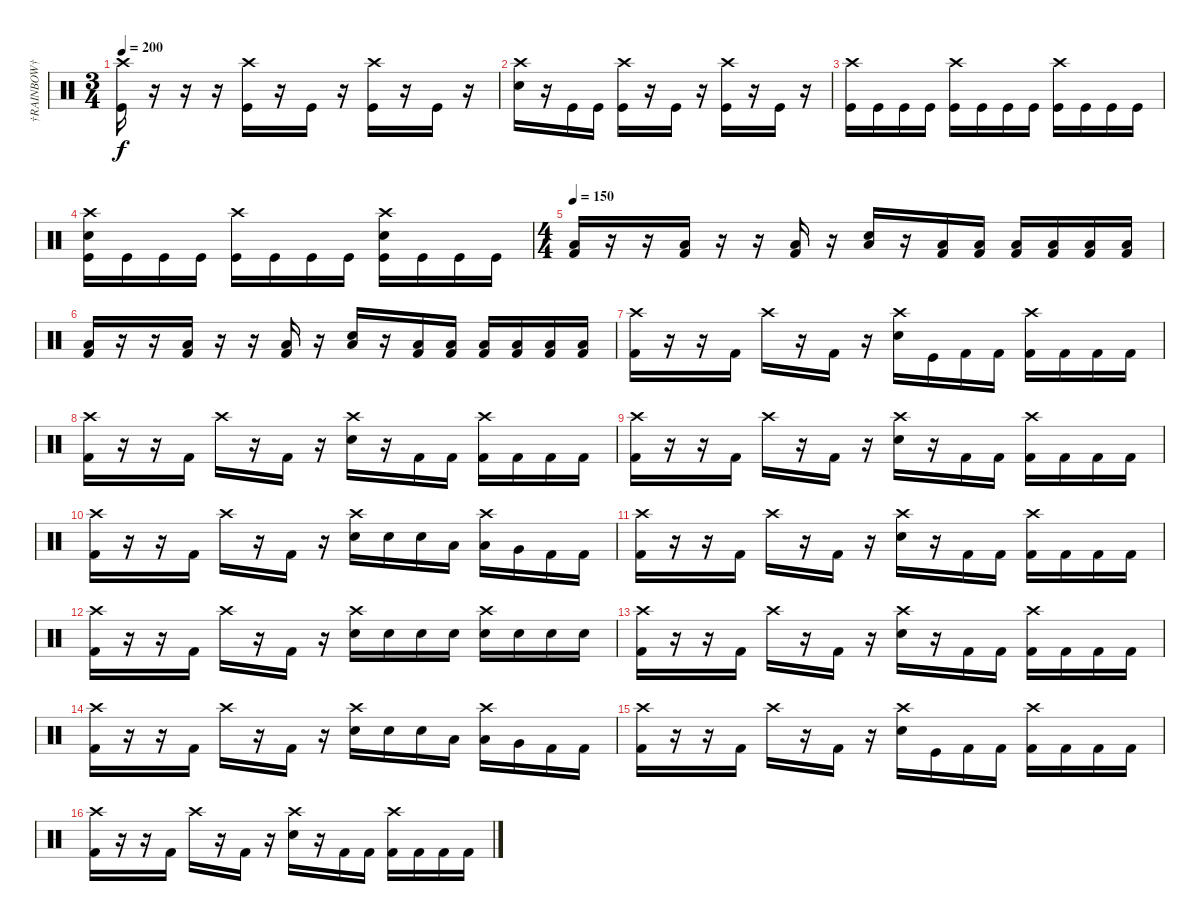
\track ("†RAINBOW†" "†RAINBOW†") {instrument percussion}
\staff {score}
\articulation defaults
\ts (3 4)
\tempo 200
\clef neutral
\ks c
("Crash high (hit)" "Kick (hit)").16{dy f} r.16 r.16 r.16 ("Crash high (hit)" "Kick (hit)").16 r.16 "Kick (hit)".16 r.16 ("Crash high (hit)" "Kick (hit)").16 r.16 "Kick (hit)".16 r.16 |
("Crash high (hit)" "Electric Snare (hit)").16 r.16 "Kick (hit)".16 "Kick (hit)".16 ("Crash high (hit)" "Kick (hit)").16 r.16 "Kick (hit)".16 r.16 ("Crash high (hit)" "Kick (hit)").16 r.16 "Kick (hit)".16 r.16 |
("Crash high (hit)" "Kick (hit)").16 "Kick (hit)".16 "Kick (hit)".16 "Kick (hit)".16 ("Crash high (hit)" "Kick (hit)").16 "Kick (hit)".16 "Kick (hit)".16 "Kick (hit)".16 ("Crash high (hit)" "Kick (hit)").16 "Kick (hit)".16 "Kick (hit)".16 "Kick (hit)".16 |
("Crash high (hit)" "Electric Snare (hit)" "Kick (hit)").16 "Kick (hit)".16 "Kick (hit)".16 "Kick (hit)".16 ("Crash high (hit)" "Kick (hit)").16 "Kick (hit)".16 "Kick (hit)".16 "Kick (hit)".16 ("Crash high (hit)" "Electric Snare (hit)" "Kick (hit)").16 "Kick (hit)".16 "Kick (hit)".16 "Kick (hit)".16 |
\ts (4 4)
\tempo 150
("Low Floor Tom (hit)" "Kick (hit) 2").16 r.16 r.16 ("Low Floor Tom (hit)" "Kick (hit) 2").16 r.16 r.16 ("Low Floor Tom (hit)" "Kick (hit) 2").16 r.16 ("Low Floor Tom (hit)" "Electric Snare (hit)").16 r.16 ("Low Floor Tom (hit)" "Kick (hit) 2").16 ("Low Floor Tom (hit)" "Kick (hit) 2").16 ("Low Floor Tom (hit)" "Kick (hit) 2").16 ("Low Floor Tom (hit)" "Kick (hit) 2").16 ("Low Floor Tom (hit)" "Kick (hit) 2").16 ("Low Floor Tom (hit)" "Kick (hit) 2").16 |
("Low Floor Tom (hit)" "Kick (hit) 2").16 r.16 r.16 ("Low Floor Tom (hit)" "Kick (hit) 2").16 r.16 r.16 ("Low Floor Tom (hit)" "Kick (hit) 2").16 r.16 ("Low Floor Tom (hit)" "Electric Snare (hit)").16 r.16 ("Low Floor Tom (hit)" "Kick (hit) 2").16 ("Low Floor Tom (hit)" "Kick (hit) 2").16 ("Low Floor Tom (hit)" "Kick (hit) 2").16 ("Low Floor Tom (hit)" "Kick (hit) 2").16 ("Low Floor Tom (hit)" "Kick (hit) 2").16 ("Low Floor Tom (hit)" "Kick (hit) 2").16 |
("Crash high (hit)" "Kick (hit) 2").16 r.16 r.16 "Kick (hit) 2".16 "Crash high (hit)".16 r.16 "Kick (hit) 2".16 r.16 ("Crash high (hit)" "Electric Snare (hit)").16 "Kick (hit)".16 "Kick (hit) 2".16 "Kick (hit) 2".16 ("Crash high (hit)" "Kick (hit) 2").16 "Kick (hit) 2".16 "Kick (hit) 2".16 "Kick (hit) 2".16 |
("Crash high (hit)" "Kick (hit) 2").16 r.16 r.16 "Kick (hit) 2".16 "Crash high (hit)".16 r.16 "Kick (hit) 2".16 r.16 ("Crash high (hit)" "Electric Snare (hit)").16 r.16 "Kick (hit) 2".16 "Kick (hit) 2".16 ("Crash high (hit)" "Kick (hit) 2").16 "Kick (hit) 2".16 "Kick (hit) 2".16 "Kick (hit) 2".16 |
("Crash high (hit)" "Kick (hit) 2").16 r.16 r.16 "Kick (hit) 2".16 "Crash high (hit)".16 r.16 "Kick (hit) 2".16 r.16 ("Crash high (hit)" "Electric Snare (hit)").16 r.16 "Kick (hit) 2".16 "Kick (hit) 2".16 ("Crash high (hit)" "Kick (hit) 2").16 "Kick (hit) 2".16 "Kick (hit) 2".16 "Kick (hit) 2".16 |
("Crash high (hit)" "Kick (hit) 2").16 r.16 r.16 "Kick (hit) 2".16 "Crash high (hit)".16 r.16 "Kick (hit) 2".16 r.16 ("Crash high (hit)" "Electric Snare (hit)").16 "Electric Snare (hit)".16 "Electric Snare (hit)".16 "Low Tom (hit)".16 ("Crash high (hit)" "Low Tom (hit)").16 "Very Low Tom (hit)".16 "Kick (hit) 2".16 "Kick (hit) 2".16 |
("Crash high (hit)" "Kick (hit) 2").16 r.16 r.16 "Kick (hit) 2".16 "Crash high (hit)".16 r.16 "Kick (hit) 2".16 r.16 ("Crash high (hit)" "Electric Snare (hit)").16 r.16 "Kick (hit) 2".16 "Kick (hit) 2".16 ("Crash high (hit)" "Kick (hit) 2").16 "Kick (hit) 2".16 "Kick (hit) 2".16 "Kick (hit) 2".16 |
("Crash high (hit)" "Kick (hit) 2").16 r.16 r.16 "Kick (hit) 2".16 "Crash high (hit)".16 r.16 "Kick (hit) 2".16 r.16 ("Crash high (hit)" "Electric Snare (hit)").16 "Electric Snare (hit)".16 "Electric Snare (hit)".16 "Electric Snare (hit)".16 ("Crash high (hit)" "Electric Snare (hit)").16 "Electric Snare (hit)".16 "Electric Snare (hit)".16 "Electric Snare (hit)".16 |
("Crash high (hit)" "Kick (hit) 2").16 r.16 r.16 "Kick (hit) 2".16 "Crash high (hit)".16 r.16 "Kick (hit) 2".16 r.16 ("Crash high (hit)" "Electric Snare (hit)").16 r.16 "Kick (hit) 2".16 "Kick (hit) 2".16 ("Crash high (hit)" "Kick (hit) 2").16 "Kick (hit) 2".16 "Kick (hit) 2".16 "Kick (hit) 2".16 |
("Crash high (hit)" "Kick (hit) 2").16 r.16 r.16 "Kick (hit) 2".16 "Crash high (hit)".16 r.16 "Kick (hit) 2".16 r.16 ("Crash high (hit)" "Electric Snare (hit)").16 "Electric Snare (hit)".16 "Electric Snare (hit)".16 "Low Tom (hit)".16 ("Crash high (hit)" "Low Tom (hit)").16 "Very Low Tom (hit)".16 "Kick (hit) 2".16 "Kick (hit) 2".16 |
("Crash high (hit)" "Kick (hit) 2").16 r.16 r.16 "Kick (hit) 2".16 "Crash high (hit)".16 r.16 "Kick (hit) 2".16 r.16 ("Crash high (hit)" "Electric Snare (hit)").16 "Kick (hit)".16 "Kick (hit) 2".16 "Kick (hit) 2".16 ("Crash high (hit)" "Kick (hit) 2").16 "Kick (hit) 2".16 "Kick (hit) 2".16 "Kick (hit) 2".16 |
("Crash high (hit)" "Kick (hit) 2").16 r.16 r.16 "Kick (hit) 2".16 "Crash high (hit)".16 r.16 "Kick (hit) 2".16 r.16 ("Crash high (hit)" "Electric Snare (hit)").16 r.16 "Kick (hit) 2".16 "Kick (hit) 2".16 ("Crash high (hit)" "Kick (hit) 2").16 "Kick (hit) 2".16 "Kick (hit) 2".16 "Kick (hit) 2".16
